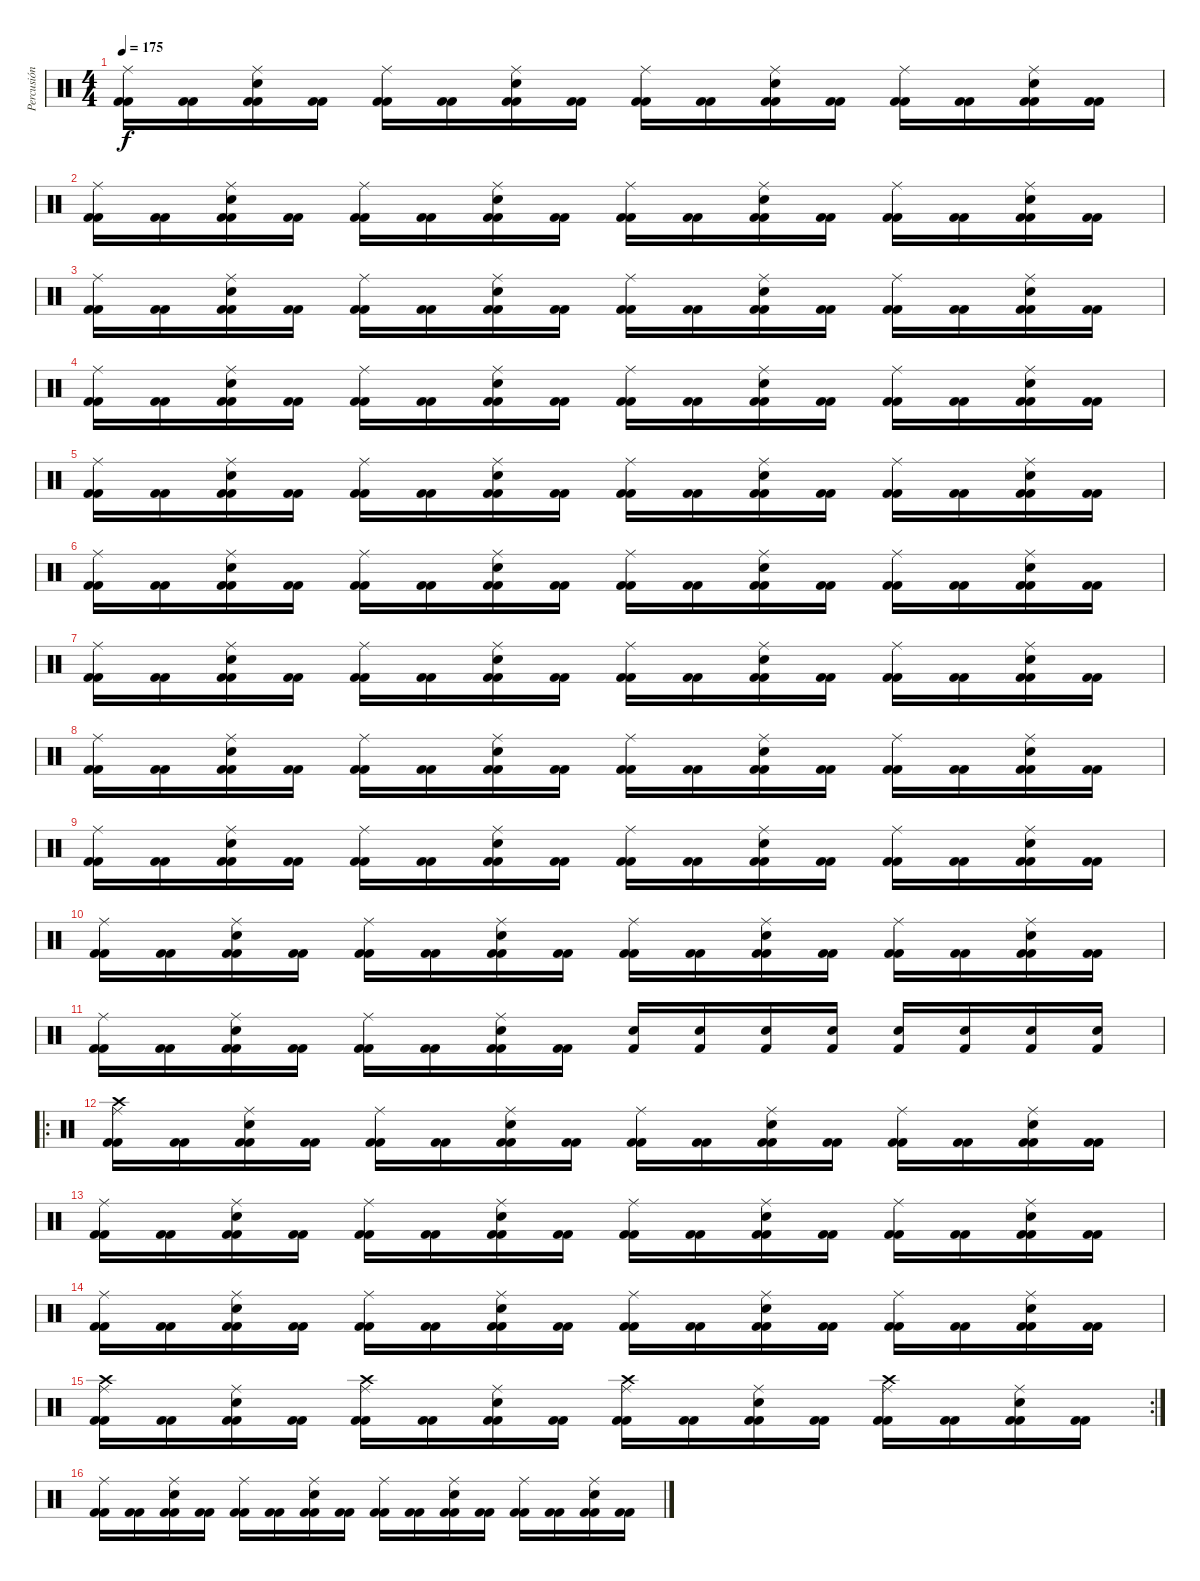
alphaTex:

\track ("Percusión" "Percusión") {instrument percussion}
\staff {score}
\articulation defaults
\ts (4 4)
\tempo 175
\clef neutral
\ks c
("Kick (hit) 2" "Kick (hit) 2" "Ride (middle)").16{dy f} ("Kick (hit) 2" "Kick (hit) 2").16 ("Kick (hit) 2" "Kick (hit) 2" "Electric Snare (hit)" "Ride (middle)").16 ("Kick (hit) 2" "Kick (hit) 2").16 ("Kick (hit) 2" "Kick (hit) 2" "Ride (middle)").16 ("Kick (hit) 2" "Kick (hit) 2").16 ("Kick (hit) 2" "Kick (hit) 2" "Electric Snare (hit)" "Ride (middle)").16 ("Kick (hit) 2" "Kick (hit) 2").16 ("Kick (hit) 2" "Kick (hit) 2" "Ride (middle)").16 ("Kick (hit) 2" "Kick (hit) 2").16 ("Kick (hit) 2" "Kick (hit) 2" "Electric Snare (hit)" "Ride (middle)").16 ("Kick (hit) 2" "Kick (hit) 2").16 ("Kick (hit) 2" "Kick (hit) 2" "Ride (middle)").16 ("Kick (hit) 2" "Kick (hit) 2").16 ("Kick (hit) 2" "Kick (hit) 2" "Electric Snare (hit)" "Ride (middle)").16 ("Kick (hit) 2" "Kick (hit) 2").16 |
("Kick (hit) 2" "Kick (hit) 2" "Ride (middle)").16 ("Kick (hit) 2" "Kick (hit) 2").16 ("Kick (hit) 2" "Kick (hit) 2" "Electric Snare (hit)" "Ride (middle)").16 ("Kick (hit) 2" "Kick (hit) 2").16 ("Kick (hit) 2" "Kick (hit) 2" "Ride (middle)").16 ("Kick (hit) 2" "Kick (hit) 2").16 ("Kick (hit) 2" "Kick (hit) 2" "Electric Snare (hit)" "Ride (middle)").16 ("Kick (hit) 2" "Kick (hit) 2").16 ("Kick (hit) 2" "Kick (hit) 2" "Ride (middle)").16 ("Kick (hit) 2" "Kick (hit) 2").16 ("Kick (hit) 2" "Kick (hit) 2" "Electric Snare (hit)" "Ride (middle)").16 ("Kick (hit) 2" "Kick (hit) 2").16 ("Kick (hit) 2" "Kick (hit) 2" "Ride (middle)").16 ("Kick (hit) 2" "Kick (hit) 2").16 ("Kick (hit) 2" "Kick (hit) 2" "Electric Snare (hit)" "Ride (middle)").16 ("Kick (hit) 2" "Kick (hit) 2").16 |
("Kick (hit) 2" "Kick (hit) 2" "Ride (middle)").16 ("Kick (hit) 2" "Kick (hit) 2").16 ("Kick (hit) 2" "Kick (hit) 2" "Electric Snare (hit)" "Ride (middle)").16 ("Kick (hit) 2" "Kick (hit) 2").16 ("Kick (hit) 2" "Kick (hit) 2" "Ride (middle)").16 ("Kick (hit) 2" "Kick (hit) 2").16 ("Kick (hit) 2" "Kick (hit) 2" "Electric Snare (hit)" "Ride (middle)").16 ("Kick (hit) 2" "Kick (hit) 2").16 ("Kick (hit) 2" "Kick (hit) 2" "Ride (middle)").16 ("Kick (hit) 2" "Kick (hit) 2").16 ("Kick (hit) 2" "Kick (hit) 2" "Electric Snare (hit)" "Ride (middle)").16 ("Kick (hit) 2" "Kick (hit) 2").16 ("Kick (hit) 2" "Kick (hit) 2" "Ride (middle)").16 ("Kick (hit) 2" "Kick (hit) 2").16 ("Kick (hit) 2" "Kick (hit) 2" "Electric Snare (hit)" "Ride (middle)").16 ("Kick (hit) 2" "Kick (hit) 2").16 |
("Kick (hit) 2" "Kick (hit) 2" "Ride (middle)").16 ("Kick (hit) 2" "Kick (hit) 2").16 ("Kick (hit) 2" "Kick (hit) 2" "Electric Snare (hit)" "Ride (middle)").16 ("Kick (hit) 2" "Kick (hit) 2").16 ("Kick (hit) 2" "Kick (hit) 2" "Ride (middle)").16 ("Kick (hit) 2" "Kick (hit) 2").16 ("Kick (hit) 2" "Kick (hit) 2" "Electric Snare (hit)" "Ride (middle)").16 ("Kick (hit) 2" "Kick (hit) 2").16 ("Kick (hit) 2" "Kick (hit) 2" "Ride (middle)").16 ("Kick (hit) 2" "Kick (hit) 2").16 ("Kick (hit) 2" "Kick (hit) 2" "Electric Snare (hit)" "Ride (middle)").16 ("Kick (hit) 2" "Kick (hit) 2").16 ("Kick (hit) 2" "Kick (hit) 2" "Ride (middle)").16 ("Kick (hit) 2" "Kick (hit) 2").16 ("Kick (hit) 2" "Kick (hit) 2" "Electric Snare (hit)" "Ride (middle)").16 ("Kick (hit) 2" "Kick (hit) 2").16 |
("Kick (hit) 2" "Kick (hit) 2" "Ride (middle)").16 ("Kick (hit) 2" "Kick (hit) 2").16 ("Kick (hit) 2" "Kick (hit) 2" "Electric Snare (hit)" "Ride (middle)").16 ("Kick (hit) 2" "Kick (hit) 2").16 ("Kick (hit) 2" "Kick (hit) 2" "Ride (middle)").16 ("Kick (hit) 2" "Kick (hit) 2").16 ("Kick (hit) 2" "Kick (hit) 2" "Electric Snare (hit)" "Ride (middle)").16 ("Kick (hit) 2" "Kick (hit) 2").16 ("Kick (hit) 2" "Kick (hit) 2" "Ride (middle)").16 ("Kick (hit) 2" "Kick (hit) 2").16 ("Kick (hit) 2" "Kick (hit) 2" "Electric Snare (hit)" "Ride (middle)").16 ("Kick (hit) 2" "Kick (hit) 2").16 ("Kick (hit) 2" "Kick (hit) 2" "Ride (middle)").16 ("Kick (hit) 2" "Kick (hit) 2").16 ("Kick (hit) 2" "Kick (hit) 2" "Electric Snare (hit)" "Ride (middle)").16 ("Kick (hit) 2" "Kick (hit) 2").16 |
("Kick (hit) 2" "Kick (hit) 2" "Ride (middle)").16 ("Kick (hit) 2" "Kick (hit) 2").16 ("Kick (hit) 2" "Kick (hit) 2" "Electric Snare (hit)" "Ride (middle)").16 ("Kick (hit) 2" "Kick (hit) 2").16 ("Kick (hit) 2" "Kick (hit) 2" "Ride (middle)").16 ("Kick (hit) 2" "Kick (hit) 2").16 ("Kick (hit) 2" "Kick (hit) 2" "Electric Snare (hit)" "Ride (middle)").16 ("Kick (hit) 2" "Kick (hit) 2").16 ("Kick (hit) 2" "Kick (hit) 2" "Ride (middle)").16 ("Kick (hit) 2" "Kick (hit) 2").16 ("Kick (hit) 2" "Kick (hit) 2" "Electric Snare (hit)" "Ride (middle)").16 ("Kick (hit) 2" "Kick (hit) 2").16 ("Kick (hit) 2" "Kick (hit) 2" "Ride (middle)").16 ("Kick (hit) 2" "Kick (hit) 2").16 ("Kick (hit) 2" "Kick (hit) 2" "Electric Snare (hit)" "Ride (middle)").16 ("Kick (hit) 2" "Kick (hit) 2").16 |
("Kick (hit) 2" "Kick (hit) 2" "Ride (middle)").16 ("Kick (hit) 2" "Kick (hit) 2").16 ("Kick (hit) 2" "Kick (hit) 2" "Electric Snare (hit)" "Ride (middle)").16 ("Kick (hit) 2" "Kick (hit) 2").16 ("Kick (hit) 2" "Kick (hit) 2" "Ride (middle)").16 ("Kick (hit) 2" "Kick (hit) 2").16 ("Kick (hit) 2" "Kick (hit) 2" "Electric Snare (hit)" "Ride (middle)").16 ("Kick (hit) 2" "Kick (hit) 2").16 ("Kick (hit) 2" "Kick (hit) 2" "Ride (middle)").16 ("Kick (hit) 2" "Kick (hit) 2").16 ("Kick (hit) 2" "Kick (hit) 2" "Electric Snare (hit)" "Ride (middle)").16 ("Kick (hit) 2" "Kick (hit) 2").16 ("Kick (hit) 2" "Kick (hit) 2" "Ride (middle)").16 ("Kick (hit) 2" "Kick (hit) 2").16 ("Kick (hit) 2" "Kick (hit) 2" "Electric Snare (hit)" "Ride (middle)").16 ("Kick (hit) 2" "Kick (hit) 2").16 |
("Kick (hit) 2" "Kick (hit) 2" "Ride (middle)").16 ("Kick (hit) 2" "Kick (hit) 2").16 ("Kick (hit) 2" "Kick (hit) 2" "Electric Snare (hit)" "Ride (middle)").16 ("Kick (hit) 2" "Kick (hit) 2").16 ("Kick (hit) 2" "Kick (hit) 2" "Ride (middle)").16 ("Kick (hit) 2" "Kick (hit) 2").16 ("Kick (hit) 2" "Kick (hit) 2" "Electric Snare (hit)" "Ride (middle)").16 ("Kick (hit) 2" "Kick (hit) 2").16 ("Kick (hit) 2" "Kick (hit) 2" "Ride (middle)").16 ("Kick (hit) 2" "Kick (hit) 2").16 ("Kick (hit) 2" "Kick (hit) 2" "Electric Snare (hit)" "Ride (middle)").16 ("Kick (hit) 2" "Kick (hit) 2").16 ("Kick (hit) 2" "Kick (hit) 2" "Ride (middle)").16 ("Kick (hit) 2" "Kick (hit) 2").16 ("Kick (hit) 2" "Kick (hit) 2" "Electric Snare (hit)" "Ride (middle)").16 ("Kick (hit) 2" "Kick (hit) 2").16 |
("Kick (hit) 2" "Kick (hit) 2" "Ride (middle)").16 ("Kick (hit) 2" "Kick (hit) 2").16 ("Kick (hit) 2" "Kick (hit) 2" "Electric Snare (hit)" "Ride (middle)").16 ("Kick (hit) 2" "Kick (hit) 2").16 ("Kick (hit) 2" "Kick (hit) 2" "Ride (middle)").16 ("Kick (hit) 2" "Kick (hit) 2").16 ("Kick (hit) 2" "Kick (hit) 2" "Electric Snare (hit)" "Ride (middle)").16 ("Kick (hit) 2" "Kick (hit) 2").16 ("Kick (hit) 2" "Kick (hit) 2" "Ride (middle)").16 ("Kick (hit) 2" "Kick (hit) 2").16 ("Kick (hit) 2" "Kick (hit) 2" "Electric Snare (hit)" "Ride (middle)").16 ("Kick (hit) 2" "Kick (hit) 2").16 ("Kick (hit) 2" "Kick (hit) 2" "Ride (middle)").16 ("Kick (hit) 2" "Kick (hit) 2").16 ("Kick (hit) 2" "Kick (hit) 2" "Electric Snare (hit)" "Ride (middle)").16 ("Kick (hit) 2" "Kick (hit) 2").16 |
("Kick (hit) 2" "Kick (hit) 2" "Ride (middle)").16 ("Kick (hit) 2" "Kick (hit) 2").16 ("Kick (hit) 2" "Kick (hit) 2" "Electric Snare (hit)" "Ride (middle)").16 ("Kick (hit) 2" "Kick (hit) 2").16 ("Kick (hit) 2" "Kick (hit) 2" "Ride (middle)").16 ("Kick (hit) 2" "Kick (hit) 2").16 ("Kick (hit) 2" "Kick (hit) 2" "Electric Snare (hit)" "Ride (middle)").16 ("Kick (hit) 2" "Kick (hit) 2").16 ("Kick (hit) 2" "Kick (hit) 2" "Ride (middle)").16 ("Kick (hit) 2" "Kick (hit) 2").16 ("Kick (hit) 2" "Kick (hit) 2" "Electric Snare (hit)" "Ride (middle)").16 ("Kick (hit) 2" "Kick (hit) 2").16 ("Kick (hit) 2" "Kick (hit) 2" "Ride (middle)").16 ("Kick (hit) 2" "Kick (hit) 2").16 ("Kick (hit) 2" "Kick (hit) 2" "Electric Snare (hit)" "Ride (middle)").16 ("Kick (hit) 2" "Kick (hit) 2").16 |
("Kick (hit) 2" "Kick (hit) 2" "Ride (middle)").16 ("Kick (hit) 2" "Kick (hit) 2").16 ("Kick (hit) 2" "Kick (hit) 2" "Electric Snare (hit)" "Ride (middle)").16 ("Kick (hit) 2" "Kick (hit) 2").16 ("Kick (hit) 2" "Kick (hit) 2" "Ride (middle)").16 ("Kick (hit) 2" "Kick (hit) 2").16 ("Kick (hit) 2" "Kick (hit) 2" "Electric Snare (hit)" "Ride (middle)").16 ("Kick (hit) 2" "Kick (hit) 2").16 ("Kick (hit) 2" "Electric Snare (hit)").16 ("Kick (hit) 2" "Electric Snare (hit)").16 ("Kick (hit) 2" "Electric Snare (hit)").16 ("Kick (hit) 2" "Electric Snare (hit)").16 ("Kick (hit) 2" "Electric Snare (hit)").16 ("Kick (hit) 2" "Electric Snare (hit)").16 ("Kick (hit) 2" "Electric Snare (hit)").16 ("Kick (hit) 2" "Electric Snare (hit)").16 |
\ro
("Kick (hit) 2" "Kick (hit) 2" "Ride (middle)" "Crash high (hit)").16 ("Kick (hit) 2" "Kick (hit) 2").16 ("Kick (hit) 2" "Kick (hit) 2" "Electric Snare (hit)" "Ride (middle)").16 ("Kick (hit) 2" "Kick (hit) 2").16 ("Kick (hit) 2" "Kick (hit) 2" "Ride (middle)").16 ("Kick (hit) 2" "Kick (hit) 2").16 ("Kick (hit) 2" "Kick (hit) 2" "Electric Snare (hit)" "Ride (middle)").16 ("Kick (hit) 2" "Kick (hit) 2").16 ("Kick (hit) 2" "Kick (hit) 2" "Ride (middle)").16 ("Kick (hit) 2" "Kick (hit) 2").16 ("Kick (hit) 2" "Kick (hit) 2" "Electric Snare (hit)" "Ride (middle)").16 ("Kick (hit) 2" "Kick (hit) 2").16 ("Kick (hit) 2" "Kick (hit) 2" "Ride (middle)").16 ("Kick (hit) 2" "Kick (hit) 2").16 ("Kick (hit) 2" "Kick (hit) 2" "Electric Snare (hit)" "Ride (middle)").16 ("Kick (hit) 2" "Kick (hit) 2").16 |
("Kick (hit) 2" "Kick (hit) 2" "Ride (middle)").16 ("Kick (hit) 2" "Kick (hit) 2").16 ("Kick (hit) 2" "Kick (hit) 2" "Electric Snare (hit)" "Ride (middle)").16 ("Kick (hit) 2" "Kick (hit) 2").16 ("Kick (hit) 2" "Kick (hit) 2" "Ride (middle)").16 ("Kick (hit) 2" "Kick (hit) 2").16 ("Kick (hit) 2" "Kick (hit) 2" "Electric Snare (hit)" "Ride (middle)").16 ("Kick (hit) 2" "Kick (hit) 2").16 ("Kick (hit) 2" "Kick (hit) 2" "Ride (middle)").16 ("Kick (hit) 2" "Kick (hit) 2").16 ("Kick (hit) 2" "Kick (hit) 2" "Electric Snare (hit)" "Ride (middle)").16 ("Kick (hit) 2" "Kick (hit) 2").16 ("Kick (hit) 2" "Kick (hit) 2" "Ride (middle)").16 ("Kick (hit) 2" "Kick (hit) 2").16 ("Kick (hit) 2" "Kick (hit) 2" "Electric Snare (hit)" "Ride (middle)").16 ("Kick (hit) 2" "Kick (hit) 2").16 |
("Kick (hit) 2" "Kick (hit) 2" "Ride (middle)").16 ("Kick (hit) 2" "Kick (hit) 2").16 ("Kick (hit) 2" "Kick (hit) 2" "Electric Snare (hit)" "Ride (middle)").16 ("Kick (hit) 2" "Kick (hit) 2").16 ("Kick (hit) 2" "Kick (hit) 2" "Ride (middle)").16 ("Kick (hit) 2" "Kick (hit) 2").16 ("Kick (hit) 2" "Kick (hit) 2" "Electric Snare (hit)" "Ride (middle)").16 ("Kick (hit) 2" "Kick (hit) 2").16 ("Kick (hit) 2" "Kick (hit) 2" "Ride (middle)").16 ("Kick (hit) 2" "Kick (hit) 2").16 ("Kick (hit) 2" "Kick (hit) 2" "Electric Snare (hit)" "Ride (middle)").16 ("Kick (hit) 2" "Kick (hit) 2").16 ("Kick (hit) 2" "Kick (hit) 2" "Ride (middle)").16 ("Kick (hit) 2" "Kick (hit) 2").16 ("Kick (hit) 2" "Kick (hit) 2" "Electric Snare (hit)" "Ride (middle)").16 ("Kick (hit) 2" "Kick (hit) 2").16 |
\rc 2
("Kick (hit) 2" "Kick (hit) 2" "Ride (middle)" "Crash high (hit)").16 ("Kick (hit) 2" "Kick (hit) 2").16 ("Kick (hit) 2" "Kick (hit) 2" "Electric Snare (hit)" "Ride (middle)").16 ("Kick (hit) 2" "Kick (hit) 2").16 ("Kick (hit) 2" "Kick (hit) 2" "Ride (middle)" "Crash high (hit)").16 ("Kick (hit) 2" "Kick (hit) 2").16 ("Kick (hit) 2" "Kick (hit) 2" "Electric Snare (hit)" "Ride (middle)").16 ("Kick (hit) 2" "Kick (hit) 2").16 ("Kick (hit) 2" "Kick (hit) 2" "Ride (middle)" "Crash high (hit)").16 ("Kick (hit) 2" "Kick (hit) 2").16 ("Kick (hit) 2" "Kick (hit) 2" "Electric Snare (hit)" "Ride (middle)").16 ("Kick (hit) 2" "Kick (hit) 2").16 ("Kick (hit) 2" "Kick (hit) 2" "Ride (middle)" "Crash high (hit)").16 ("Kick (hit) 2" "Kick (hit) 2").16 ("Kick (hit) 2" "Kick (hit) 2" "Electric Snare (hit)" "Ride (middle)").16 ("Kick (hit) 2" "Kick (hit) 2").16 |
("Kick (hit) 2" "Kick (hit) 2" "Ride (middle)").16 ("Kick (hit) 2" "Kick (hit) 2").16 ("Kick (hit) 2" "Kick (hit) 2" "Electric Snare (hit)" "Ride (middle)").16 ("Kick (hit) 2" "Kick (hit) 2").16 ("Kick (hit) 2" "Kick (hit) 2" "Ride (middle)").16 ("Kick (hit) 2" "Kick (hit) 2").16 ("Kick (hit) 2" "Kick (hit) 2" "Electric Snare (hit)" "Ride (middle)").16 ("Kick (hit) 2" "Kick (hit) 2").16 ("Kick (hit) 2" "Kick (hit) 2" "Ride (middle)").16 ("Kick (hit) 2" "Kick (hit) 2").16 ("Kick (hit) 2" "Kick (hit) 2" "Electric Snare (hit)" "Ride (middle)").16 ("Kick (hit) 2" "Kick (hit) 2").16 ("Kick (hit) 2" "Kick (hit) 2" "Ride (middle)").16 ("Kick (hit) 2" "Kick (hit) 2").16 ("Kick (hit) 2" "Kick (hit) 2" "Electric Snare (hit)" "Ride (middle)").16 ("Kick (hit) 2" "Kick (hit) 2").16
